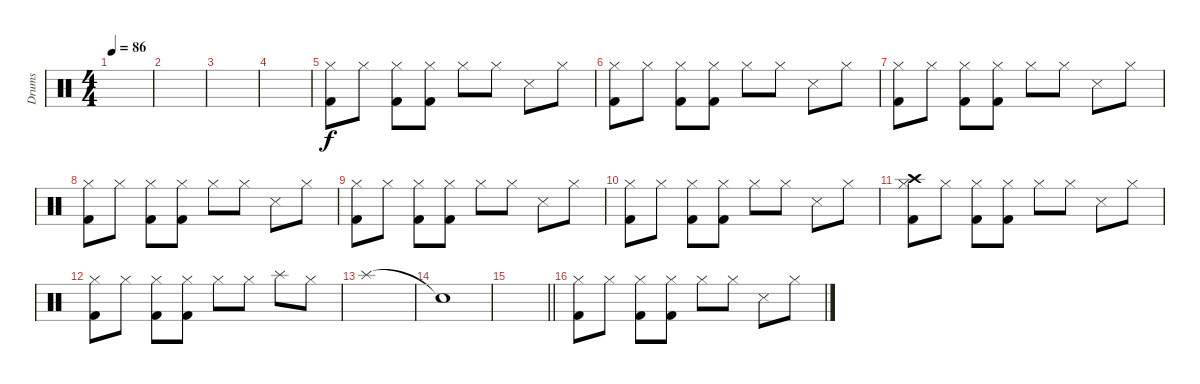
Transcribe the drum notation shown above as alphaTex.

\track ("Drums" "Drums") {instrument percussion}
\staff {score}
\articulation defaults
\ts (4 4)
\tempo 86
\clef neutral
\ks c
|
|
|
|
("Hi-Hat (closed)" "Kick (hit) 2").8 "Hi-Hat (closed)".8 ("Hi-Hat (closed)" "Kick (hit) 2").8 ("Hi-Hat (closed)" "Kick (hit) 2").8 "Hi-Hat (closed)".8 "Hi-Hat (closed)".8 "Snare (side stick) 3".8 "Hi-Hat (closed)".8 |
("Hi-Hat (closed)" "Kick (hit) 2").8 "Hi-Hat (closed)".8 ("Hi-Hat (closed)" "Kick (hit) 2").8 ("Hi-Hat (closed)" "Kick (hit) 2").8 "Hi-Hat (closed)".8 "Hi-Hat (closed)".8 "Snare (side stick) 3".8 "Hi-Hat (closed)".8 |
("Hi-Hat (closed)" "Kick (hit) 2").8 "Hi-Hat (closed)".8 ("Hi-Hat (closed)" "Kick (hit) 2").8 ("Hi-Hat (closed)" "Kick (hit) 2").8 "Hi-Hat (closed)".8 "Hi-Hat (closed)".8 "Snare (side stick) 3".8 "Hi-Hat (closed)".8 |
("Hi-Hat (closed)" "Kick (hit) 2").8 "Hi-Hat (closed)".8 ("Hi-Hat (closed)" "Kick (hit) 2").8 ("Hi-Hat (closed)" "Kick (hit) 2").8 "Hi-Hat (closed)".8 "Hi-Hat (closed)".8 "Snare (side stick) 3".8 "Hi-Hat (closed)".8 |
("Hi-Hat (closed)" "Kick (hit) 2").8 "Hi-Hat (closed)".8 ("Hi-Hat (closed)" "Kick (hit) 2").8 ("Hi-Hat (closed)" "Kick (hit) 2").8 "Hi-Hat (closed)".8 "Hi-Hat (closed)".8 "Snare (side stick) 3".8 "Hi-Hat (closed)".8 |
("Hi-Hat (closed)" "Kick (hit) 2").8 "Hi-Hat (closed)".8 ("Hi-Hat (closed)" "Kick (hit) 2").8 ("Hi-Hat (closed)" "Kick (hit) 2").8 "Hi-Hat (closed)".8 "Hi-Hat (closed)".8 "Snare (side stick) 3".8 "Hi-Hat (closed)".8 |
("Hi-Hat (closed)" "Crash high (hit)" "Kick (hit) 2").8 "Hi-Hat (closed)".8 ("Hi-Hat (closed)" "Kick (hit) 2").8 ("Hi-Hat (closed)" "Kick (hit) 2").8 "Hi-Hat (closed)".8 "Hi-Hat (closed)".8 "Snare (side stick) 3".8 "Hi-Hat (closed)".8 |
("Hi-Hat (closed)" "Kick (hit) 2").8 "Hi-Hat (closed)".8 ("Hi-Hat (closed)" "Kick (hit) 2").8 ("Hi-Hat (closed)" "Kick (hit) 2").8 "Hi-Hat (closed)".8 "Hi-Hat (closed)".8 "Splash (hit)".8 "Hi-Hat (closed)".8 |
"Splash (hit)".1 |
"Snare (hit)"{t}.1 |
\barLineRight lightlight
|
("Hi-Hat (closed)" "Kick (hit) 2").8 "Hi-Hat (closed)".8 ("Hi-Hat (closed)" "Kick (hit) 2").8 ("Hi-Hat (closed)" "Kick (hit) 2").8 "Hi-Hat (closed)".8 "Hi-Hat (closed)".8 "Snare (side stick) 3".8 "Hi-Hat (closed)".8
